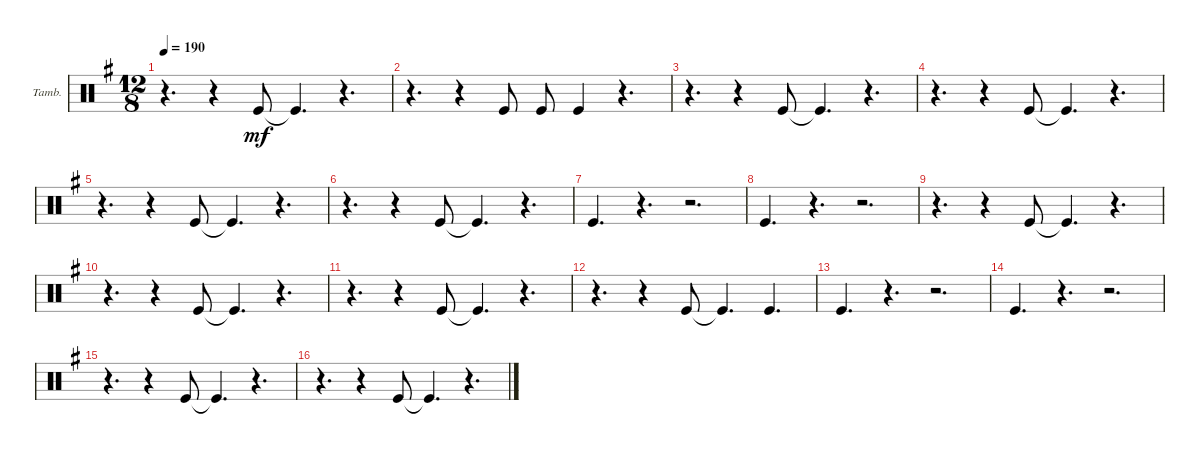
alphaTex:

\defaultSystemsLayout 4
\bracketExtendMode groupsimilarinstruments
\firstSystemTrackNameOrientation horizontal
\otherSystemsTrackNameOrientation horizontal
\track ("Tambourine" "Tamb.") {instrument percussion}
\staff {score}
\articulation defaults
\ts (12 8)
\tempo 190
\clef neutral
\ks g
r.4{d dy mf} r.4 "Kick (hit)".8 "Kick (hit)"{t}.4{d} r.4{d} |
r.4{d} r.4 "Kick (hit)".8 "Kick (hit)".8 "Kick (hit)".4 r.4{d} |
r.4{d} r.4 "Kick (hit)".8 "Kick (hit)"{t}.4{d} r.4{d} |
r.4{d} r.4 "Kick (hit)".8 "Kick (hit)"{t}.4{d} r.4{d} |
r.4{d} r.4 "Kick (hit)".8 "Kick (hit)"{t}.4{d} r.4{d} |
r.4{d} r.4 "Kick (hit)".8 "Kick (hit)"{t}.4{d} r.4{d} |
"Kick (hit)".4{d} r.4{d} r.2{d} |
"Kick (hit)".4{d} r.4{d} r.2{d} |
r.4{d} r.4 "Kick (hit)".8 "Kick (hit)"{t}.4{d} r.4{d} |
r.4{d} r.4 "Kick (hit)".8 "Kick (hit)"{t}.4{d} r.4{d} |
r.4{d} r.4 "Kick (hit)".8 "Kick (hit)"{t}.4{d} r.4{d} |
r.4{d} r.4 "Kick (hit)".8 "Kick (hit)"{t}.4{d} "Kick (hit)".4{d} |
"Kick (hit)".4{d} r.4{d} r.2{d} |
"Kick (hit)".4{d} r.4{d} r.2{d} |
r.4{d} r.4 "Kick (hit)".8 "Kick (hit)"{t}.4{d} r.4{d} |
r.4{d} r.4 "Kick (hit)".8 "Kick (hit)"{t}.4{d} r.4{d}
